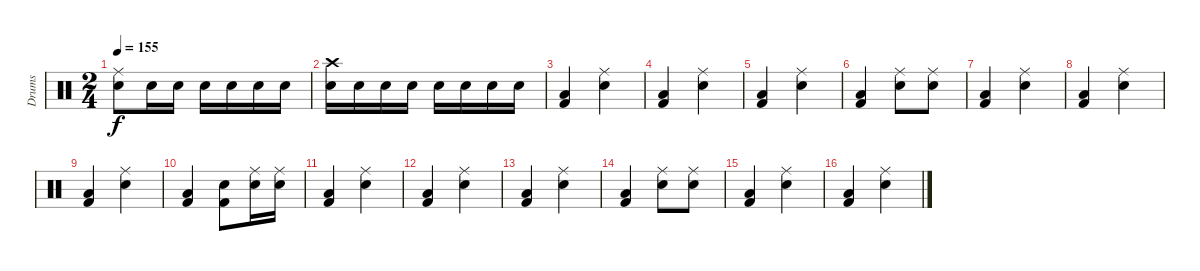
\track ("Drums" "Drums") {instrument percussion}
\staff {score}
\articulation defaults
\ts (2 4)
\tempo 155
\clef neutral
\ks c
("Snare (hit) 2" "Ride (middle)").8{dy f} "Snare (hit) 2".16 "Snare (hit) 2".16 "Snare (hit) 2".16 "Snare (hit) 2".16 "Snare (hit) 2".16 "Snare (hit) 2".16 |
("Snare (hit) 2" "Crash high (hit)").16 "Snare (hit) 2".16 "Snare (hit) 2".16 "Snare (hit) 2".16 "Snare (hit) 2".16 "Snare (hit) 2".16 "Snare (hit) 2".16 "Snare (hit) 2".16 |
("Low Floor Tom (hit)" "Kick (hit) 2").4 ("Snare (hit) 2" "Ride (middle)").4 |
("Low Floor Tom (hit)" "Kick (hit) 2").4 ("Snare (hit) 2" "Ride (middle)").4 |
("Low Floor Tom (hit)" "Kick (hit) 2").4 ("Snare (hit) 2" "Ride (middle)").4 |
("Low Floor Tom (hit)" "Kick (hit) 2").4 ("Snare (hit) 2" "Ride (middle)").8 ("Snare (hit) 2" "Ride (middle)").8 |
("Low Floor Tom (hit)" "Kick (hit) 2").4 ("Snare (hit) 2" "Ride (middle)").4 |
("Low Floor Tom (hit)" "Kick (hit) 2").4 ("Snare (hit) 2" "Ride (middle)").4 |
("Low Floor Tom (hit)" "Kick (hit) 2").4 ("Snare (hit) 2" "Ride (middle)").4 |
("Low Floor Tom (hit)" "Kick (hit) 2").4 ("Snare (hit) 2" "Kick (hit) 2").8 ("Snare (hit) 2" "Ride (middle)").16 ("Snare (hit) 2" "Ride (middle)").16 |
("Low Floor Tom (hit)" "Kick (hit) 2").4 ("Snare (hit) 2" "Ride (middle)").4 |
("Low Floor Tom (hit)" "Kick (hit) 2").4 ("Snare (hit) 2" "Ride (middle)").4 |
("Low Floor Tom (hit)" "Kick (hit) 2").4 ("Snare (hit) 2" "Ride (middle)").4 |
("Low Floor Tom (hit)" "Kick (hit) 2").4 ("Snare (hit) 2" "Ride (middle)").8 ("Snare (hit) 2" "Ride (middle)").8 |
("Low Floor Tom (hit)" "Kick (hit) 2").4 ("Snare (hit) 2" "Ride (middle)").4 |
("Low Floor Tom (hit)" "Kick (hit) 2").4 ("Snare (hit) 2" "Ride (middle)").4
